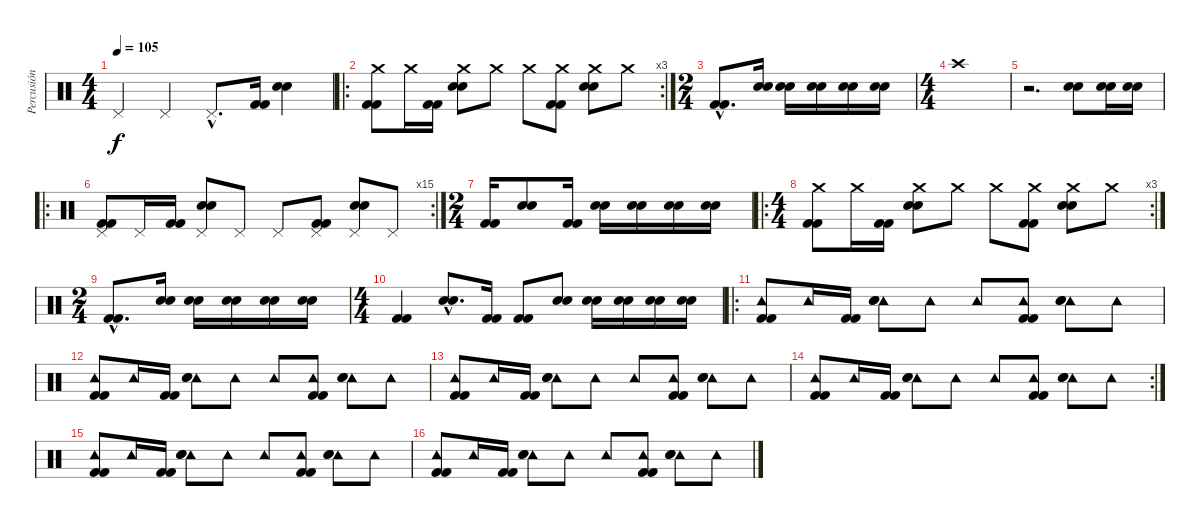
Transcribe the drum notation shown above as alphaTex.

\track ("Percusión" "Percusión") {instrument percussion}
\staff {score}
\articulation defaults
\ts (4 4)
\tempo 105
\clef neutral
\ks c "Pedal Hi-Hat (hit)".4{dy f} "Pedal Hi-Hat (hit)".4 "Pedal Hi-Hat (hit)"{hac}.8{d}
("Kick (hit) 2" "Kick (hit) 2").16 ("Electric Snare (hit)" "Electric Snare (hit)").4 |
\ro
\rc 3
("Crash medium (hit)" "Kick (hit) 2" "Kick (hit) 2").8 "Crash medium (hit)".16 ("Kick (hit) 2" "Kick (hit) 2").16 ("Crash medium (hit)" "Electric Snare (hit)" "Electric Snare (hit)").8 "Crash medium (hit)".8 "Crash medium (hit)".8 ("Crash medium (hit)" "Kick (hit) 2" "Kick (hit) 2").8 ("Crash medium (hit)" "Electric Snare (hit)" "Electric Snare (hit)").8 "Crash medium (hit)".8 |
\ts (2 4)
("Kick (hit) 2"{hac} "Kick (hit) 2"{hac}).8{d} ("Electric Snare (hit)" "Electric Snare (hit)").16 ("Electric Snare (hit)" "Electric Snare (hit)").16 ("Electric Snare (hit)" "Electric Snare (hit)").16 ("Electric Snare (hit)" "Electric Snare (hit)").16 ("Electric Snare (hit)" "Electric Snare (hit)").16 |
\ts (4 4)
"Crash high (hit)".1 |
r.2{d} ("Electric Snare (hit)" "Electric Snare (hit)").8 ("Electric Snare (hit)" "Electric Snare (hit)").16 ("Electric Snare (hit)" "Electric Snare (hit)").16 |
\ro
\rc 15
("Pedal Hi-Hat (hit)" "Kick (hit) 2" "Kick (hit) 2").8 "Pedal Hi-Hat (hit)".16 ("Kick (hit) 2" "Kick (hit) 2").16 ("Pedal Hi-Hat (hit)" "Electric Snare (hit)" "Electric Snare (hit)").8 "Pedal Hi-Hat (hit)".8 "Pedal Hi-Hat (hit)".8 ("Pedal Hi-Hat (hit)" "Kick (hit) 2" "Kick (hit) 2").8 ("Pedal Hi-Hat (hit)" "Electric Snare (hit)" "Electric Snare (hit)").8 "Pedal Hi-Hat (hit)".8 |
\ts (2 4)
("Kick (hit) 2" "Kick (hit) 2").16 ("Electric Snare (hit)" "Electric Snare (hit)").8 ("Kick (hit) 2" "Kick (hit) 2").16 ("Electric Snare (hit)" "Electric Snare (hit)").16 ("Electric Snare (hit)" "Electric Snare (hit)").16 ("Electric Snare (hit)" "Electric Snare (hit)").16 ("Electric Snare (hit)" "Electric Snare (hit)").16 |
\ro
\rc 3
\ts (4 4)
("Crash medium (hit)" "Kick (hit) 2" "Kick (hit) 2").8 "Crash medium (hit)".16 ("Kick (hit) 2" "Kick (hit) 2").16 ("Crash medium (hit)" "Electric Snare (hit)" "Electric Snare (hit)").8 "Crash medium (hit)".8 "Crash medium (hit)".8 ("Crash medium (hit)" "Kick (hit) 2" "Kick (hit) 2").8 ("Crash medium (hit)" "Electric Snare (hit)" "Electric Snare (hit)").8 "Crash medium (hit)".8 |
\ts (2 4)
("Kick (hit) 2"{hac} "Kick (hit) 2"{hac}).8{d} ("Electric Snare (hit)" "Electric Snare (hit)").16 ("Electric Snare (hit)" "Electric Snare (hit)").16 ("Electric Snare (hit)" "Electric Snare (hit)").16 ("Electric Snare (hit)" "Electric Snare (hit)").16 ("Electric Snare (hit)" "Electric Snare (hit)").16 |
\ts (4 4)
("Kick (hit) 2" "Kick (hit) 2").4 ("Electric Snare (hit)"{hac} "Electric Snare (hit)"{hac}).8{d} ("Kick (hit) 2" "Kick (hit) 2").16 ("Kick (hit) 2" "Kick (hit) 2").8 ("Electric Snare (hit)" "Electric Snare (hit)").8 ("Electric Snare (hit)" "Electric Snare (hit)").16 ("Electric Snare (hit)" "Electric Snare (hit)").16 ("Electric Snare (hit)" "Electric Snare (hit)").16 ("Electric Snare (hit)" "Electric Snare (hit)").16 |
\ro
("Tambourine (hit)" "Kick (hit) 2" "Kick (hit) 2").8 "Tambourine (hit)".16 ("Kick (hit) 2" "Kick (hit) 2").16 ("Tambourine (hit)" "Electric Snare (hit)" "Electric Snare (hit)").8 "Tambourine (hit)".8 "Tambourine (hit)".8 ("Tambourine (hit)" "Kick (hit) 2" "Kick (hit) 2").8 ("Tambourine (hit)" "Electric Snare (hit)" "Electric Snare (hit)").8 "Tambourine (hit)".8 |
("Tambourine (hit)" "Kick (hit) 2" "Kick (hit) 2").8 "Tambourine (hit)".16 ("Kick (hit) 2" "Kick (hit) 2").16 ("Tambourine (hit)" "Electric Snare (hit)" "Electric Snare (hit)").8 "Tambourine (hit)".8 "Tambourine (hit)".8 ("Tambourine (hit)" "Kick (hit) 2" "Kick (hit) 2").8 ("Tambourine (hit)" "Electric Snare (hit)" "Electric Snare (hit)").8 "Tambourine (hit)".8 |
("Tambourine (hit)" "Kick (hit) 2" "Kick (hit) 2").8 "Tambourine (hit)".16 ("Kick (hit) 2" "Kick (hit) 2").16 ("Tambourine (hit)" "Electric Snare (hit)" "Electric Snare (hit)").8 "Tambourine (hit)".8 "Tambourine (hit)".8 ("Tambourine (hit)" "Kick (hit) 2" "Kick (hit) 2").8 ("Tambourine (hit)" "Electric Snare (hit)" "Electric Snare (hit)").8 "Tambourine (hit)".8 |
\rc 2
("Tambourine (hit)" "Kick (hit) 2" "Kick (hit) 2").8 "Tambourine (hit)".16 ("Kick (hit) 2" "Kick (hit) 2").16 ("Tambourine (hit)" "Electric Snare (hit)" "Electric Snare (hit)").8 "Tambourine (hit)".8 "Tambourine (hit)".8 ("Tambourine (hit)" "Kick (hit) 2" "Kick (hit) 2").8 ("Tambourine (hit)" "Electric Snare (hit)" "Electric Snare (hit)").8 "Tambourine (hit)".8 |
("Tambourine (hit)" "Kick (hit) 2" "Kick (hit) 2").8 "Tambourine (hit)".16 ("Kick (hit) 2" "Kick (hit) 2").16 ("Tambourine (hit)" "Electric Snare (hit)" "Electric Snare (hit)").8 "Tambourine (hit)".8 "Tambourine (hit)".8 ("Tambourine (hit)" "Kick (hit) 2" "Kick (hit) 2").8 ("Tambourine (hit)" "Electric Snare (hit)" "Electric Snare (hit)").8 "Tambourine (hit)".8 |
("Tambourine (hit)" "Kick (hit) 2" "Kick (hit) 2").8 "Tambourine (hit)".16 ("Kick (hit) 2" "Kick (hit) 2").16 ("Tambourine (hit)" "Electric Snare (hit)" "Electric Snare (hit)").8 "Tambourine (hit)".8 "Tambourine (hit)".8 ("Tambourine (hit)" "Kick (hit) 2" "Kick (hit) 2").8 ("Tambourine (hit)" "Electric Snare (hit)" "Electric Snare (hit)").8 "Tambourine (hit)".8
